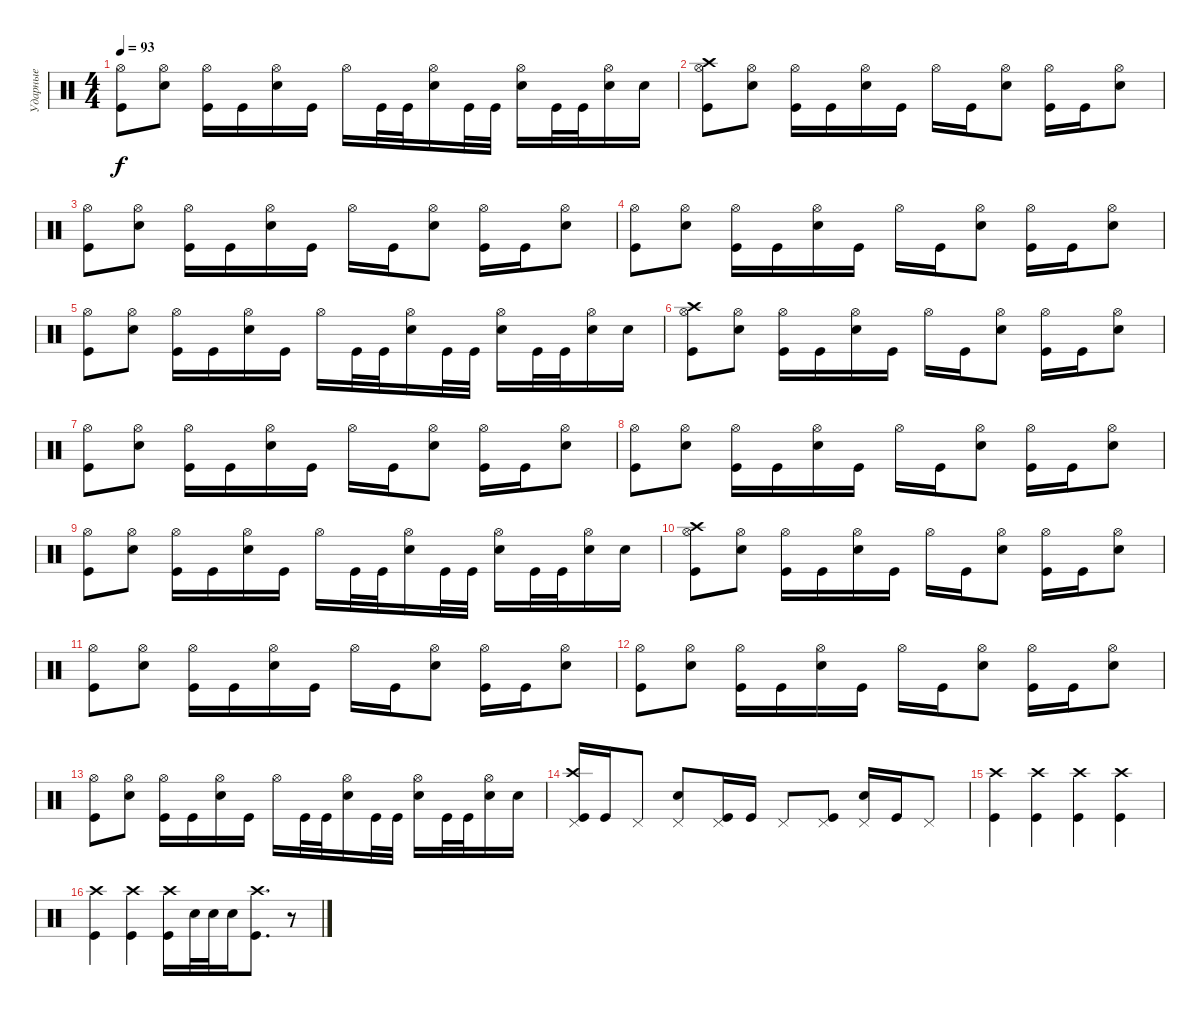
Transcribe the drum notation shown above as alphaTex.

\track ("Ударные" "Ударные") {instrument percussion}
\staff {score}
\articulation defaults
\ts (4 4)
\tempo 93
\clef neutral
\ks c
("Kick (hit)" "Hi-Hat (open)").8{dy f} ("Hi-Hat (open)" "Snare (hit) 2").8 ("Kick (hit)" "Hi-Hat (open)").16 "Kick (hit)".16 ("Snare (hit) 2" "Hi-Hat (open)").16 "Kick (hit)".16 "Hi-Hat (open)".16 "Kick (hit)".32 "Kick (hit)".32 ("Hi-Hat (open)" "Snare (hit) 2").16 "Kick (hit)".32 "Kick (hit)".32 ("Hi-Hat (open)" "Snare (hit) 2").16 "Kick (hit)".32 "Kick (hit)".32 ("Hi-Hat (open)" "Snare (hit) 2").16 "Snare (hit) 2".16 |
("Kick (hit)" "Hi-Hat (open)" "Crash high (hit)").8 ("Hi-Hat (open)" "Snare (hit) 2").8 ("Kick (hit)" "Hi-Hat (open)").16 "Kick (hit)".16 ("Snare (hit) 2" "Hi-Hat (open)").16 "Kick (hit)".16 "Hi-Hat (open)".16 "Kick (hit)".16 ("Hi-Hat (open)" "Snare (hit) 2").8 ("Kick (hit)" "Hi-Hat (open)").16 "Kick (hit)".16 ("Snare (hit) 2" "Hi-Hat (open)").8 |
("Kick (hit)" "Hi-Hat (open)").8 ("Hi-Hat (open)" "Snare (hit) 2").8 ("Kick (hit)" "Hi-Hat (open)").16 "Kick (hit)".16 ("Snare (hit) 2" "Hi-Hat (open)").16 "Kick (hit)".16 "Hi-Hat (open)".16 "Kick (hit)".16 ("Hi-Hat (open)" "Snare (hit) 2").8 ("Kick (hit)" "Hi-Hat (open)").16 "Kick (hit)".16 ("Snare (hit) 2" "Hi-Hat (open)").8 |
("Kick (hit)" "Hi-Hat (open)").8 ("Hi-Hat (open)" "Snare (hit) 2").8 ("Kick (hit)" "Hi-Hat (open)").16 "Kick (hit)".16 ("Snare (hit) 2" "Hi-Hat (open)").16 "Kick (hit)".16 "Hi-Hat (open)".16 "Kick (hit)".16 ("Hi-Hat (open)" "Snare (hit) 2").8 ("Kick (hit)" "Hi-Hat (open)").16 "Kick (hit)".16 ("Snare (hit) 2" "Hi-Hat (open)").8 |
("Kick (hit)" "Hi-Hat (open)").8 ("Hi-Hat (open)" "Snare (hit) 2").8 ("Kick (hit)" "Hi-Hat (open)").16 "Kick (hit)".16 ("Snare (hit) 2" "Hi-Hat (open)").16 "Kick (hit)".16 "Hi-Hat (open)".16 "Kick (hit)".32 "Kick (hit)".32 ("Hi-Hat (open)" "Snare (hit) 2").16 "Kick (hit)".32 "Kick (hit)".32 ("Hi-Hat (open)" "Snare (hit) 2").16 "Kick (hit)".32 "Kick (hit)".32 ("Hi-Hat (open)" "Snare (hit) 2").16 "Snare (hit) 2".16 |
("Kick (hit)" "Hi-Hat (open)" "Crash high (hit)").8 ("Hi-Hat (open)" "Snare (hit) 2").8 ("Kick (hit)" "Hi-Hat (open)").16 "Kick (hit)".16 ("Snare (hit) 2" "Hi-Hat (open)").16 "Kick (hit)".16 "Hi-Hat (open)".16 "Kick (hit)".16 ("Hi-Hat (open)" "Snare (hit) 2").8 ("Kick (hit)" "Hi-Hat (open)").16 "Kick (hit)".16 ("Snare (hit) 2" "Hi-Hat (open)").8 |
("Kick (hit)" "Hi-Hat (open)").8 ("Hi-Hat (open)" "Snare (hit) 2").8 ("Kick (hit)" "Hi-Hat (open)").16 "Kick (hit)".16 ("Snare (hit) 2" "Hi-Hat (open)").16 "Kick (hit)".16 "Hi-Hat (open)".16 "Kick (hit)".16 ("Hi-Hat (open)" "Snare (hit) 2").8 ("Kick (hit)" "Hi-Hat (open)").16 "Kick (hit)".16 ("Snare (hit) 2" "Hi-Hat (open)").8 |
("Kick (hit)" "Hi-Hat (open)").8 ("Hi-Hat (open)" "Snare (hit) 2").8 ("Kick (hit)" "Hi-Hat (open)").16 "Kick (hit)".16 ("Snare (hit) 2" "Hi-Hat (open)").16 "Kick (hit)".16 "Hi-Hat (open)".16 "Kick (hit)".16 ("Hi-Hat (open)" "Snare (hit) 2").8 ("Kick (hit)" "Hi-Hat (open)").16 "Kick (hit)".16 ("Snare (hit) 2" "Hi-Hat (open)").8 |
("Kick (hit)" "Hi-Hat (open)").8 ("Hi-Hat (open)" "Snare (hit) 2").8 ("Kick (hit)" "Hi-Hat (open)").16 "Kick (hit)".16 ("Snare (hit) 2" "Hi-Hat (open)").16 "Kick (hit)".16 "Hi-Hat (open)".16 "Kick (hit)".32 "Kick (hit)".32 ("Hi-Hat (open)" "Snare (hit) 2").16 "Kick (hit)".32 "Kick (hit)".32 ("Hi-Hat (open)" "Snare (hit) 2").16 "Kick (hit)".32 "Kick (hit)".32 ("Hi-Hat (open)" "Snare (hit) 2").16 "Snare (hit) 2".16 |
("Kick (hit)" "Hi-Hat (open)" "Crash high (hit)").8 ("Hi-Hat (open)" "Snare (hit) 2").8 ("Kick (hit)" "Hi-Hat (open)").16 "Kick (hit)".16 ("Snare (hit) 2" "Hi-Hat (open)").16 "Kick (hit)".16 "Hi-Hat (open)".16 "Kick (hit)".16 ("Hi-Hat (open)" "Snare (hit) 2").8 ("Kick (hit)" "Hi-Hat (open)").16 "Kick (hit)".16 ("Snare (hit) 2" "Hi-Hat (open)").8 |
("Kick (hit)" "Hi-Hat (open)").8 ("Hi-Hat (open)" "Snare (hit) 2").8 ("Kick (hit)" "Hi-Hat (open)").16 "Kick (hit)".16 ("Snare (hit) 2" "Hi-Hat (open)").16 "Kick (hit)".16 "Hi-Hat (open)".16 "Kick (hit)".16 ("Hi-Hat (open)" "Snare (hit) 2").8 ("Kick (hit)" "Hi-Hat (open)").16 "Kick (hit)".16 ("Snare (hit) 2" "Hi-Hat (open)").8 |
("Kick (hit)" "Hi-Hat (open)").8 ("Hi-Hat (open)" "Snare (hit) 2").8 ("Kick (hit)" "Hi-Hat (open)").16 "Kick (hit)".16 ("Snare (hit) 2" "Hi-Hat (open)").16 "Kick (hit)".16 "Hi-Hat (open)".16 "Kick (hit)".16 ("Hi-Hat (open)" "Snare (hit) 2").8 ("Kick (hit)" "Hi-Hat (open)").16 "Kick (hit)".16 ("Snare (hit) 2" "Hi-Hat (open)").8 |
("Kick (hit)" "Hi-Hat (open)").8 ("Hi-Hat (open)" "Snare (hit) 2").8 ("Kick (hit)" "Hi-Hat (open)").16 "Kick (hit)".16 ("Snare (hit) 2" "Hi-Hat (open)").16 "Kick (hit)".16 "Hi-Hat (open)".16 "Kick (hit)".32 "Kick (hit)".32 ("Hi-Hat (open)" "Snare (hit) 2").16 "Kick (hit)".32 "Kick (hit)".32 ("Hi-Hat (open)" "Snare (hit) 2").16 "Kick (hit)".32 "Kick (hit)".32 ("Hi-Hat (open)" "Snare (hit) 2").16 "Snare (hit) 2".16 |
("Kick (hit)" "Pedal Hi-Hat (hit)" "Crash high (hit)").16 "Kick (hit)".16 "Pedal Hi-Hat (hit)".8 ("Pedal Hi-Hat (hit)" "Snare (hit) 2").8 ("Kick (hit)" "Pedal Hi-Hat (hit)").16 "Kick (hit)".16 "Pedal Hi-Hat (hit)".8 ("Kick (hit)" "Pedal Hi-Hat (hit)").8 ("Snare (hit) 2" "Pedal Hi-Hat (hit)").16 "Kick (hit)".16 "Pedal Hi-Hat (hit)".8 |
("Kick (hit)" "Crash high (hit)").4 ("Kick (hit)" "Crash high (hit)").4 ("Kick (hit)" "Crash high (hit)").4 ("Kick (hit)" "Crash high (hit)").4 |
("Kick (hit)" "Crash high (hit)").4 ("Kick (hit)" "Crash high (hit)").4 ("Kick (hit)" "Crash high (hit)").16 "Snare (hit) 2".32 "Snare (hit) 2".32 "Snare (hit) 2".16 ("Kick (hit)" "Crash high (hit)").8{d} r.8
